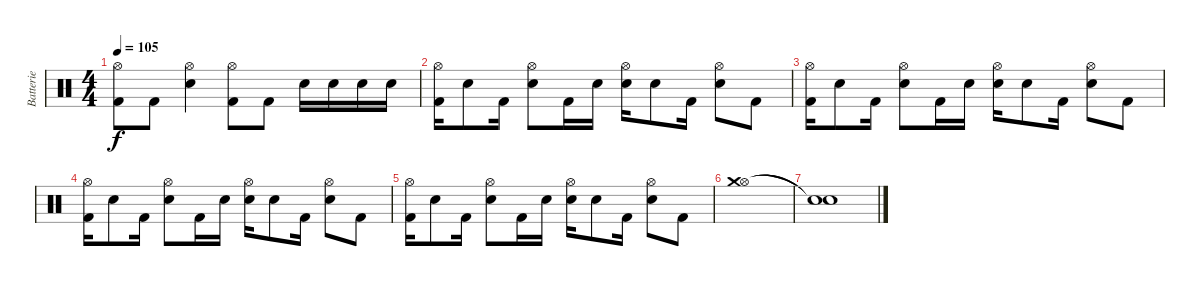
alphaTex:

\track ("Batterie" "Batterie") {instrument percussion}
\staff {score}
\articulation defaults
\ts (4 4)
\tempo 105
\clef neutral
\ks c
("Kick (hit) 2" "Hi-Hat (open)").8{dy f} "Kick (hit) 2".8 ("Electric Snare (hit)" "Hi-Hat (open)").4 ("Kick (hit) 2" "Hi-Hat (open)").8 "Kick (hit) 2".8 "Electric Snare (hit)".16 "Electric Snare (hit)".16 "Electric Snare (hit)".16 "Electric Snare (hit)".16 |
("Kick (hit) 2" "Hi-Hat (open)").16 "Electric Snare (hit)".8 "Kick (hit) 2".16 ("Electric Snare (hit)" "Hi-Hat (open)").8 "Kick (hit) 2".16 "Electric Snare (hit)".16 ("Electric Snare (hit)" "Hi-Hat (open)").16 "Electric Snare (hit)".8 "Kick (hit) 2".16 ("Electric Snare (hit)" "Hi-Hat (open)").8 "Kick (hit) 2".8 |
("Kick (hit) 2" "Hi-Hat (open)").16 "Electric Snare (hit)".8 "Kick (hit) 2".16 ("Electric Snare (hit)" "Hi-Hat (open)").8 "Kick (hit) 2".16 "Electric Snare (hit)".16 ("Electric Snare (hit)" "Hi-Hat (open)").16 "Electric Snare (hit)".8 "Kick (hit) 2".16 ("Electric Snare (hit)" "Hi-Hat (open)").8 "Kick (hit) 2".8 |
("Kick (hit) 2" "Hi-Hat (open)").16 "Electric Snare (hit)".8 "Kick (hit) 2".16 ("Electric Snare (hit)" "Hi-Hat (open)").8 "Kick (hit) 2".16 "Electric Snare (hit)".16 ("Electric Snare (hit)" "Hi-Hat (open)").16 "Electric Snare (hit)".8 "Kick (hit) 2".16 ("Electric Snare (hit)" "Hi-Hat (open)").8 "Kick (hit) 2".8 |
("Kick (hit) 2" "Hi-Hat (open)").16 "Electric Snare (hit)".8 "Kick (hit) 2".16 ("Electric Snare (hit)" "Hi-Hat (open)").8 "Kick (hit) 2".16 "Electric Snare (hit)".16 ("Electric Snare (hit)" "Hi-Hat (open)").16 "Electric Snare (hit)".8 "Kick (hit) 2".16 ("Electric Snare (hit)" "Hi-Hat (open)").8 "Kick (hit) 2".8 |
("Hi-Hat (open)" "Crash medium (hit)").1 |
("Snare (hit)"{t} "Snare (hit)"{t}).1
